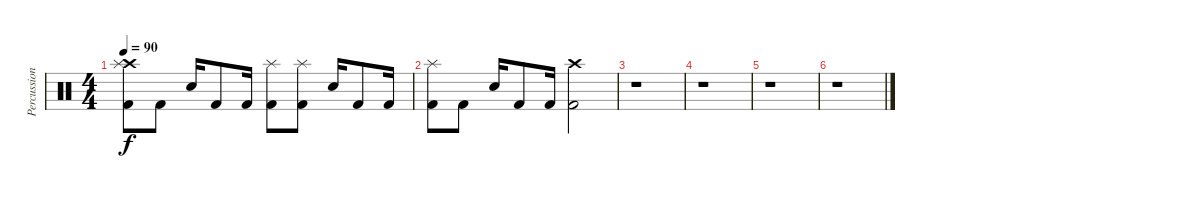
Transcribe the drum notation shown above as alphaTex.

\track ("Percussion" "Percussion") {instrument percussion}
\staff {score}
\articulation defaults
\ts (4 4)
\tempo 90
\clef neutral
\ks c
("Crash high (hit)" "Kick (hit) 2" "Splash (hit)").8{dy f} "Kick (hit) 2".8 "Electric Snare (hit)".16 "Kick (hit) 2".8 "Kick (hit) 2".16 ("Kick (hit) 2" "Splash (hit)").8 ("Kick (hit) 2" "Splash (hit)").8 "Electric Snare (hit)".16 "Kick (hit) 2".8 "Kick (hit) 2".16 |
("Kick (hit) 2" "Splash (hit)").8 "Kick (hit) 2".8 "Electric Snare (hit)".16 "Kick (hit) 2".8 "Kick (hit) 2".16 ("Crash high (hit)" "Kick (hit) 2").2 |
r.1 |
r.1 |
r.1 |
r.1
